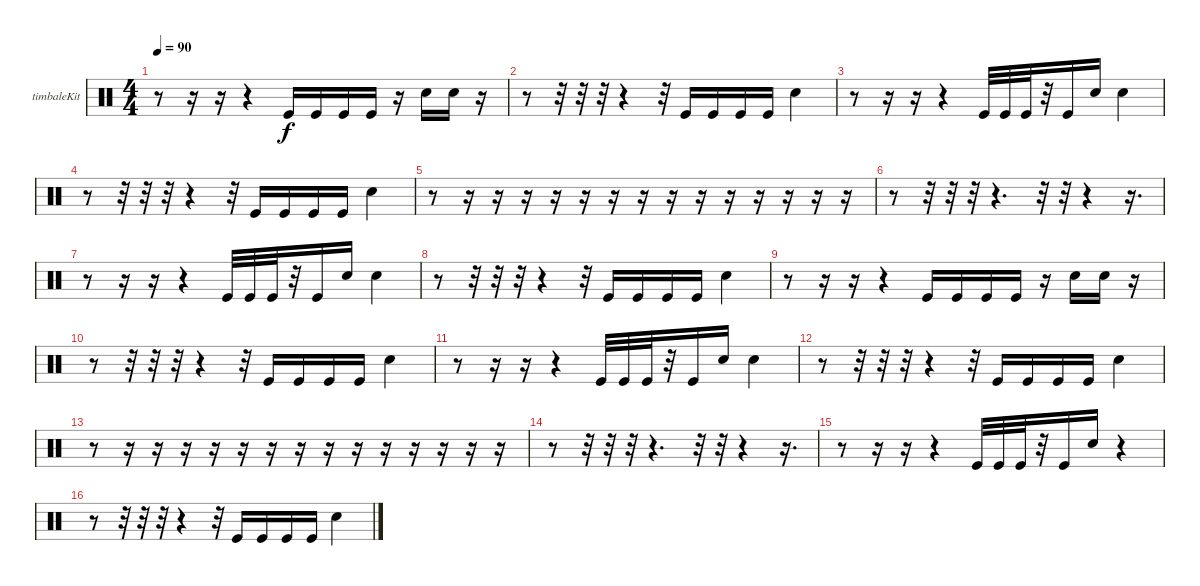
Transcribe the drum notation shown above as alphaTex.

\defaultSystemsLayout 4
\bracketExtendMode groupsimilarinstruments
\firstSystemTrackNameOrientation horizontal
\otherSystemsTrackNameOrientation horizontal
\track ("Timbale" "timbaleKit") {instrument percussion}
\staff {score}
\articulation defaults
\ts (4 4)
\tempo 90
\clef neutral
\scale
0.333333
\ks c
r.8{dy f} r.16 r.16 r.4 "Kick (hit)".16 "Kick (hit)".16 "Kick (hit)".16 "Kick (hit)".16 r.16 "Snare (hit) 2".16 "Snare (hit) 2".16 r.16 |
\scale
0.333333 r.8 r.32 r.32 r.32 r.4 r.32 "Kick (hit)".16 "Kick (hit)".16 "Kick (hit)".16 "Kick (hit)".16 "Snare (hit) 2".4 |
\scale
0.333333 r.8 r.16 r.16 r.4 "Kick (hit)".32 "Kick (hit)".32 "Kick (hit)".32 r.32 "Kick (hit)".16 "Snare (hit) 2".16 "Snare (hit) 2".4 |
\scale
0.333333 r.8 r.32 r.32 r.32 r.4 r.32 "Kick (hit)".16 "Kick (hit)".16 "Kick (hit)".16 "Kick (hit)".16 "Snare (hit) 2".4 |
\scale
0.333333 r.8 r.16 r.16 r.16 r.16 r.16 r.16 r.16 r.16 r.16 r.16 r.16 r.16 r.16 r.16 |
\scale
0.333333 r.8 r.32 r.32 r.32 r.4{d} r.32 r.32 r.4 r.16{d} |
\scale
0.333333 r.8 r.16 r.16 r.4 "Kick (hit)".32 "Kick (hit)".32 "Kick (hit)".32 r.32 "Kick (hit)".16 "Snare (hit) 2".16 "Snare (hit) 2".4 |
\scale
0.333333 r.8 r.32 r.32 r.32 r.4 r.32 "Kick (hit)".16 "Kick (hit)".16 "Kick (hit)".16 "Kick (hit)".16 "Snare (hit) 2".4 |
\scale
0.333333 r.8 r.16 r.16 r.4 "Kick (hit)".16 "Kick (hit)".16 "Kick (hit)".16 "Kick (hit)".16 r.16 "Snare (hit) 2".16 "Snare (hit) 2".16 r.16 |
\scale
0.333333 r.8 r.32 r.32 r.32 r.4 r.32 "Kick (hit)".16 "Kick (hit)".16 "Kick (hit)".16 "Kick (hit)".16 "Snare (hit) 2".4 |
\scale
0.333333 r.8 r.16 r.16 r.4 "Kick (hit)".32 "Kick (hit)".32 "Kick (hit)".32 r.32 "Kick (hit)".16 "Snare (hit) 2".16 "Snare (hit) 2".4 |
\scale
0.333333 r.8 r.32 r.32 r.32 r.4 r.32 "Kick (hit)".16 "Kick (hit)".16 "Kick (hit)".16 "Kick (hit)".16 "Snare (hit) 2".4 |
\scale
0.333333 r.8 r.16 r.16 r.16 r.16 r.16 r.16 r.16 r.16 r.16 r.16 r.16 r.16 r.16 r.16 |
\scale
0.333333 r.8 r.32 r.32 r.32 r.4{d} r.32 r.32 r.4 r.16{d} |
\scale
0.333333 r.8 r.16 r.16 r.4 "Kick (hit)".32 "Kick (hit)".32 "Kick (hit)".32 r.32 "Kick (hit)".16 "Snare (hit) 2".16 r.4 |
\scale
0.333333 r.8 r.32 r.32 r.32 r.4 r.32 "Kick (hit)".16 "Kick (hit)".16 "Kick (hit)".16 "Kick (hit)".16 "Snare (hit) 2".4
